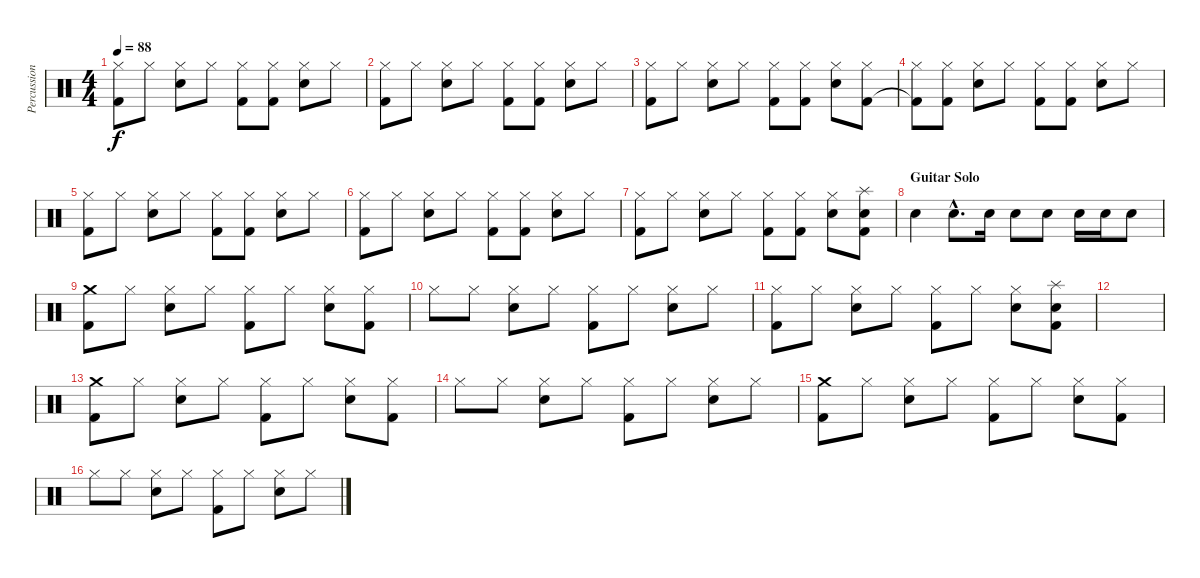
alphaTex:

\track ("Percussion" "Percussion") {instrument percussion}
\staff {score}
\articulation defaults
\ts (4 4)
\tempo 88
\clef neutral
\ks c
("Hi-Hat (closed)" "Kick (hit) 2").8{dy f} "Hi-Hat (closed)".8 ("Hi-Hat (closed)" "Snare (hit) 2").8 "Hi-Hat (closed)".8 ("Hi-Hat (closed)" "Kick (hit) 2").8 ("Hi-Hat (closed)" "Kick (hit) 2").8 ("Hi-Hat (closed)" "Snare (hit) 2").8 "Hi-Hat (closed)".8 |
("Hi-Hat (closed)" "Kick (hit) 2").8 "Hi-Hat (closed)".8 ("Hi-Hat (closed)" "Snare (hit) 2").8 "Hi-Hat (closed)".8 ("Hi-Hat (closed)" "Kick (hit) 2").8 ("Hi-Hat (closed)" "Kick (hit) 2").8 ("Hi-Hat (closed)" "Snare (hit) 2").8 "Hi-Hat (closed)".8 |
("Hi-Hat (closed)" "Kick (hit) 2").8 "Hi-Hat (closed)".8 ("Hi-Hat (closed)" "Snare (hit) 2").8 "Hi-Hat (closed)".8 ("Hi-Hat (closed)" "Kick (hit) 2").8 ("Hi-Hat (closed)" "Kick (hit) 2").8 ("Hi-Hat (closed)" "Snare (hit) 2").8 ("Hi-Hat (closed)" "Kick (hit) 2").8 |
("Hi-Hat (closed)" "Kick (hit) 2"{t}).8 ("Hi-Hat (closed)" "Kick (hit) 2").8 ("Hi-Hat (closed)" "Snare (hit) 2").8 "Hi-Hat (closed)".8 ("Hi-Hat (closed)" "Kick (hit) 2").8 ("Hi-Hat (closed)" "Kick (hit) 2").8 ("Hi-Hat (closed)" "Snare (hit) 2").8 "Hi-Hat (closed)".8 |
("Hi-Hat (closed)" "Kick (hit) 2").8 "Hi-Hat (closed)".8 ("Hi-Hat (closed)" "Snare (hit) 2").8 "Hi-Hat (closed)".8 ("Hi-Hat (closed)" "Kick (hit) 2").8 ("Hi-Hat (closed)" "Kick (hit) 2").8 ("Hi-Hat (closed)" "Snare (hit) 2").8 "Hi-Hat (closed)".8 |
("Hi-Hat (closed)" "Kick (hit) 2").8 "Hi-Hat (closed)".8 ("Hi-Hat (closed)" "Snare (hit) 2").8 "Hi-Hat (closed)".8 ("Hi-Hat (closed)" "Kick (hit) 2").8 ("Hi-Hat (closed)" "Kick (hit) 2").8 ("Hi-Hat (closed)" "Snare (hit) 2").8 "Hi-Hat (closed)".8 |
("Hi-Hat (closed)" "Kick (hit) 2").8 "Hi-Hat (closed)".8 ("Hi-Hat (closed)" "Snare (hit) 2").8 "Hi-Hat (closed)".8 ("Hi-Hat (closed)" "Kick (hit) 2").8 ("Hi-Hat (closed)" "Kick (hit) 2").8 ("Hi-Hat (closed)" "Snare (hit) 2").8 ("Splash (hit)" "Snare (hit) 2" "Kick (hit) 2").8 |
\section ("" "Guitar Solo")
"Snare (hit) 2".4 "Snare (hit) 2"{hac}.8{d} "Snare (hit) 2".16 "Snare (hit) 2".8 "Snare (hit) 2".8 "Snare (hit) 2".16 "Snare (hit) 2".16 "Snare (hit) 2".8 |
("Crash medium (hit)" "Kick (hit) 2").8 "Hi-Hat (closed)".8 ("Hi-Hat (closed)" "Snare (hit) 2").8 "Hi-Hat (closed)".8 ("Hi-Hat (closed)" "Kick (hit) 2").8 "Hi-Hat (closed)".8 ("Hi-Hat (closed)" "Snare (hit) 2").8 ("Hi-Hat (closed)" "Kick (hit) 2").8 |
"Hi-Hat (closed)".8 "Hi-Hat (closed)".8 ("Hi-Hat (closed)" "Snare (hit) 2").8 "Hi-Hat (closed)".8 ("Hi-Hat (closed)" "Kick (hit) 2").8 "Hi-Hat (closed)".8 ("Hi-Hat (closed)" "Snare (hit) 2").8 "Hi-Hat (closed)".8 |
("Hi-Hat (closed)" "Kick (hit) 2").8 "Hi-Hat (closed)".8 ("Hi-Hat (closed)" "Snare (hit) 2").8 "Hi-Hat (closed)".8 ("Hi-Hat (closed)" "Kick (hit) 2").8 "Hi-Hat (closed)".8 ("Hi-Hat (closed)" "Snare (hit) 2").8 ("Splash (hit)" "Snare (hit) 2" "Kick (hit) 2").8 |
|
("Crash medium (hit)" "Kick (hit) 2").8 "Hi-Hat (closed)".8 ("Hi-Hat (closed)" "Snare (hit) 2").8 "Hi-Hat (closed)".8 ("Hi-Hat (closed)" "Kick (hit) 2").8 "Hi-Hat (closed)".8 ("Hi-Hat (closed)" "Snare (hit) 2").8 ("Hi-Hat (closed)" "Kick (hit) 2").8 |
"Hi-Hat (closed)".8 "Hi-Hat (closed)".8 ("Hi-Hat (closed)" "Snare (hit) 2").8 "Hi-Hat (closed)".8 ("Hi-Hat (closed)" "Kick (hit) 2").8 "Hi-Hat (closed)".8 ("Hi-Hat (closed)" "Snare (hit) 2").8 "Hi-Hat (closed)".8 |
("Crash medium (hit)" "Kick (hit) 2").8 "Hi-Hat (closed)".8 ("Hi-Hat (closed)" "Snare (hit) 2").8 "Hi-Hat (closed)".8 ("Hi-Hat (closed)" "Kick (hit) 2").8 "Hi-Hat (closed)".8 ("Hi-Hat (closed)" "Snare (hit) 2").8 ("Hi-Hat (closed)" "Kick (hit) 2").8 |
"Hi-Hat (closed)".8 "Hi-Hat (closed)".8 ("Hi-Hat (closed)" "Snare (hit) 2").8 "Hi-Hat (closed)".8 ("Hi-Hat (closed)" "Kick (hit) 2").8 "Hi-Hat (closed)".8 ("Hi-Hat (closed)" "Snare (hit) 2").8 "Hi-Hat (closed)".8
